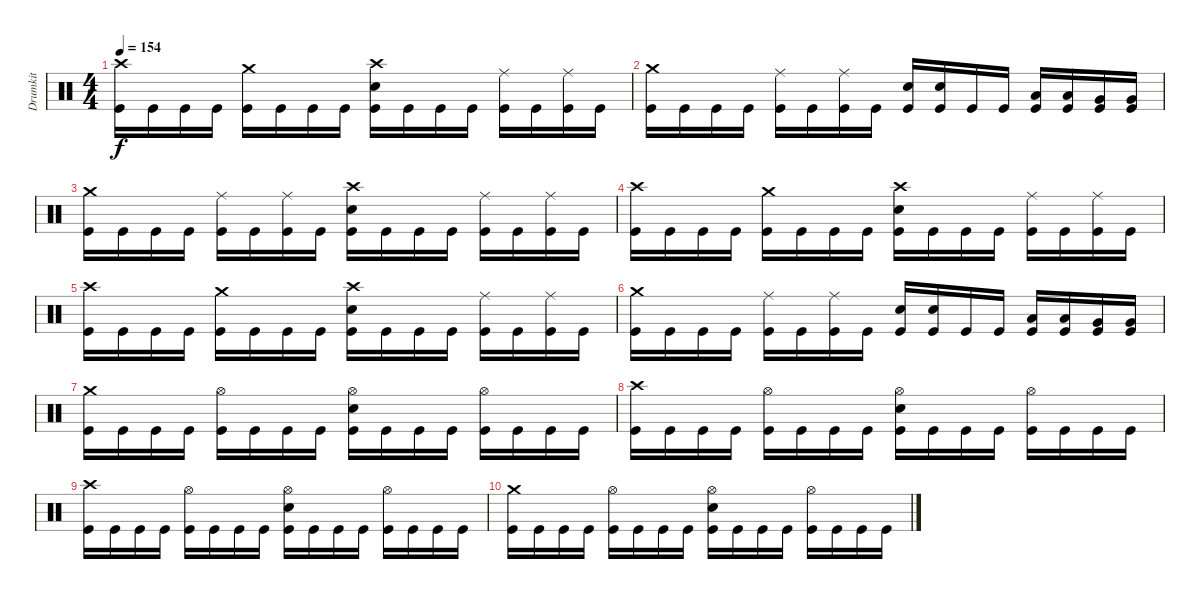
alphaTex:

\track ("Drumkit" "Drumkit") {mute instrument percussion}
\staff {score}
\articulation defaults
\ts (4 4)
\tempo 154
\clef neutral
\ks c
("Crash high (hit)" "Kick (hit)").16{dy f} "Kick (hit)".16 "Kick (hit)".16 "Kick (hit)".16 ("Crash medium (hit)" "Kick (hit)").16 "Kick (hit)".16 "Kick (hit)".16 "Kick (hit)".16 ("Crash high (hit)" "Snare (hit) 2" "Kick (hit)").16 "Kick (hit)".16 "Kick (hit)".16 "Kick (hit)".16 ("Ride (middle)" "Kick (hit)").16 "Kick (hit)".16 ("Ride (middle)" "Kick (hit)").16 "Kick (hit)".16 |
("Crash medium (hit)" "Kick (hit)").16 "Kick (hit)".16 "Kick (hit)".16 "Kick (hit)".16 ("Ride (middle)" "Kick (hit)").16 "Kick (hit)".16 ("Ride (middle)" "Kick (hit)").16 "Kick (hit)".16 ("Snare (hit) 2" "Kick (hit)").16 ("Snare (hit) 2" "Kick (hit)").16 "Kick (hit)".16 "Kick (hit)".16 ("Low Tom (hit)" "Kick (hit)").16 ("Low Tom (hit)" "Kick (hit)").16 ("Very Low Tom (hit)" "Kick (hit)").16 ("Very Low Tom (hit)" "Kick (hit)").16 |
("Crash medium (hit)" "Kick (hit)").16 "Kick (hit)".16 "Kick (hit)".16 "Kick (hit)".16 ("Ride (middle)" "Kick (hit)").16 "Kick (hit)".16 ("Ride (middle)" "Kick (hit)").16 "Kick (hit)".16 ("Crash high (hit)" "Snare (hit) 2" "Kick (hit)").16 "Kick (hit)".16 "Kick (hit)".16 "Kick (hit)".16 ("Ride (middle)" "Kick (hit)").16 "Kick (hit)".16 ("Ride (middle)" "Kick (hit)").16 "Kick (hit)".16 |
("Crash high (hit)" "Kick (hit)").16 "Kick (hit)".16 "Kick (hit)".16 "Kick (hit)".16 ("Crash medium (hit)" "Kick (hit)").16 "Kick (hit)".16 "Kick (hit)".16 "Kick (hit)".16 ("Crash high (hit)" "Snare (hit) 2" "Kick (hit)").16 "Kick (hit)".16 "Kick (hit)".16 "Kick (hit)".16 ("Ride (middle)" "Kick (hit)").16 "Kick (hit)".16 ("Ride (middle)" "Kick (hit)").16 "Kick (hit)".16 |
("Crash high (hit)" "Kick (hit)").16 "Kick (hit)".16 "Kick (hit)".16 "Kick (hit)".16 ("Crash medium (hit)" "Kick (hit)").16 "Kick (hit)".16 "Kick (hit)".16 "Kick (hit)".16 ("Crash high (hit)" "Snare (hit) 2" "Kick (hit)").16 "Kick (hit)".16 "Kick (hit)".16 "Kick (hit)".16 ("Ride (middle)" "Kick (hit)").16 "Kick (hit)".16 ("Ride (middle)" "Kick (hit)").16 "Kick (hit)".16 |
("Crash medium (hit)" "Kick (hit)").16 "Kick (hit)".16 "Kick (hit)".16 "Kick (hit)".16 ("Ride (middle)" "Kick (hit)").16 "Kick (hit)".16 ("Ride (middle)" "Kick (hit)").16 "Kick (hit)".16 ("Snare (hit) 2" "Kick (hit)").16 ("Snare (hit) 2" "Kick (hit)").16 "Kick (hit)".16 "Kick (hit)".16 ("Low Tom (hit)" "Kick (hit)").16 ("Low Tom (hit)" "Kick (hit)").16 ("Very Low Tom (hit)" "Kick (hit)").16 ("Very Low Tom (hit)" "Kick (hit)").16 |
("Crash medium (hit)" "Kick (hit)").16 "Kick (hit)".16 "Kick (hit)".16 "Kick (hit)".16 ("Hi-Hat (open)" "Kick (hit)").16 "Kick (hit)".16 "Kick (hit)".16 "Kick (hit)".16 ("Hi-Hat (open)" "Snare (hit) 2" "Kick (hit)").16 "Kick (hit)".16 "Kick (hit)".16 "Kick (hit)".16 ("Hi-Hat (open)" "Kick (hit)").16 "Kick (hit)".16 "Kick (hit)".16 "Kick (hit)".16 |
("Crash high (hit)" "Kick (hit)").16 "Kick (hit)".16 "Kick (hit)".16 "Kick (hit)".16 ("Hi-Hat (open)" "Kick (hit)").16 "Kick (hit)".16 "Kick (hit)".16 "Kick (hit)".16 ("Hi-Hat (open)" "Snare (hit) 2" "Kick (hit)").16 "Kick (hit)".16 "Kick (hit)".16 "Kick (hit)".16 ("Hi-Hat (open)" "Kick (hit)").16 "Kick (hit)".16 "Kick (hit)".16 "Kick (hit)".16 |
("Crash high (hit)" "Kick (hit)").16 "Kick (hit)".16 "Kick (hit)".16 "Kick (hit)".16 ("Hi-Hat (open)" "Kick (hit)").16 "Kick (hit)".16 "Kick (hit)".16 "Kick (hit)".16 ("Hi-Hat (open)" "Snare (hit) 2" "Kick (hit)").16 "Kick (hit)".16 "Kick (hit)".16 "Kick (hit)".16 ("Hi-Hat (open)" "Kick (hit)").16 "Kick (hit)".16 "Kick (hit)".16 "Kick (hit)".16 |
("Crash medium (hit)" "Kick (hit)").16 "Kick (hit)".16 "Kick (hit)".16 "Kick (hit)".16 ("Hi-Hat (open)" "Kick (hit)").16 "Kick (hit)".16 "Kick (hit)".16 "Kick (hit)".16 ("Hi-Hat (open)" "Snare (hit) 2" "Kick (hit)").16 "Kick (hit)".16 "Kick (hit)".16 "Kick (hit)".16 ("Hi-Hat (open)" "Kick (hit)").16 "Kick (hit)".16 "Kick (hit)".16 "Kick (hit)".16
